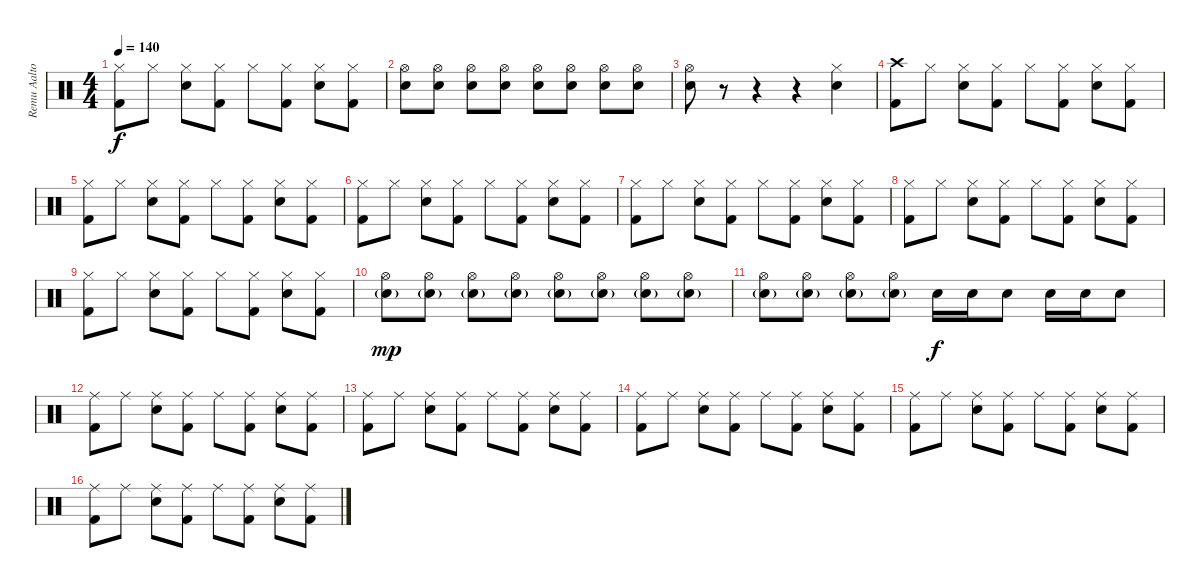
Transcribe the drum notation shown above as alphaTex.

\track ("Remu Aaltonen" "Remu Aalto") {instrument percussion}
\staff {score}
\articulation defaults
\ts (4 4)
\tempo 140
\clef neutral
\ks c
("Hi-Hat (closed)" "Kick (hit) 2").8{dy f} "Hi-Hat (closed)".8 ("Hi-Hat (closed)" "Snare (hit) 2").8 ("Hi-Hat (closed)" "Kick (hit) 2").8 "Hi-Hat (closed)".8 ("Hi-Hat (closed)" "Kick (hit) 2").8 ("Hi-Hat (closed)" "Snare (hit) 2").8 ("Hi-Hat (closed)" "Kick (hit) 2").8 |
("Hi-Hat (open)" "Snare (hit) 2").8{volume 5} ("Hi-Hat (open)" "Snare (hit) 2").8{volume 13} ("Hi-Hat (open)" "Snare (hit) 2").8 ("Hi-Hat (open)" "Snare (hit) 2").8 ("Hi-Hat (open)" "Snare (hit) 2").8 ("Hi-Hat (open)" "Snare (hit) 2").8 ("Hi-Hat (open)" "Snare (hit) 2").8 ("Hi-Hat (open)" "Snare (hit) 2").8 |
("Hi-Hat (open)" "Snare (hit) 2").8 r.8 r.4 r.4 ("Hi-Hat (closed)" "Snare (hit) 2").4 |
("Crash high (hit)" "Kick (hit) 2").8 "Hi-Hat (closed)".8 ("Hi-Hat (closed)" "Snare (hit) 2").8 ("Hi-Hat (closed)" "Kick (hit) 2").8 "Hi-Hat (closed)".8 ("Hi-Hat (closed)" "Kick (hit) 2").8 ("Hi-Hat (closed)" "Snare (hit) 2").8 ("Hi-Hat (closed)" "Kick (hit) 2").8 |
("Hi-Hat (closed)" "Kick (hit) 2").8 "Hi-Hat (closed)".8 ("Hi-Hat (closed)" "Snare (hit) 2").8 ("Hi-Hat (closed)" "Kick (hit) 2").8 "Hi-Hat (closed)".8 ("Hi-Hat (closed)" "Kick (hit) 2").8 ("Hi-Hat (closed)" "Snare (hit) 2").8 ("Hi-Hat (closed)" "Kick (hit) 2").8 |
("Hi-Hat (closed)" "Kick (hit) 2").8 "Hi-Hat (closed)".8 ("Hi-Hat (closed)" "Snare (hit) 2").8 ("Hi-Hat (closed)" "Kick (hit) 2").8 "Hi-Hat (closed)".8 ("Hi-Hat (closed)" "Kick (hit) 2").8 ("Hi-Hat (closed)" "Snare (hit) 2").8 ("Hi-Hat (closed)" "Kick (hit) 2").8 |
("Hi-Hat (closed)" "Kick (hit) 2").8 "Hi-Hat (closed)".8 ("Hi-Hat (closed)" "Snare (hit) 2").8 ("Hi-Hat (closed)" "Kick (hit) 2").8 "Hi-Hat (closed)".8 ("Hi-Hat (closed)" "Kick (hit) 2").8 ("Hi-Hat (closed)" "Snare (hit) 2").8 ("Hi-Hat (closed)" "Kick (hit) 2").8 |
("Hi-Hat (closed)" "Kick (hit) 2").8 "Hi-Hat (closed)".8 ("Hi-Hat (closed)" "Snare (hit) 2").8 ("Hi-Hat (closed)" "Kick (hit) 2").8 "Hi-Hat (closed)".8 ("Hi-Hat (closed)" "Kick (hit) 2").8 ("Hi-Hat (closed)" "Snare (hit) 2").8 ("Hi-Hat (closed)" "Kick (hit) 2").8 |
("Hi-Hat (closed)" "Kick (hit) 2").8 "Hi-Hat (closed)".8 ("Hi-Hat (closed)" "Snare (hit) 2").8 ("Hi-Hat (closed)" "Kick (hit) 2").8 "Hi-Hat (closed)".8 ("Hi-Hat (closed)" "Kick (hit) 2").8 ("Hi-Hat (closed)" "Snare (hit) 2").8 ("Hi-Hat (closed)" "Kick (hit) 2").8 |
("Hi-Hat (open)" "Snare (hit) 2"{g}).8{dy mp} ("Hi-Hat (open)" "Snare (hit) 2"{g}).8 ("Hi-Hat (open)" "Snare (hit) 2"{g}).8 ("Hi-Hat (open)" "Snare (hit) 2"{g}).8 ("Hi-Hat (open)" "Snare (hit) 2"{g}).8 ("Hi-Hat (open)" "Snare (hit) 2"{g}).8 ("Hi-Hat (open)" "Snare (hit) 2"{g}).8 ("Hi-Hat (open)" "Snare (hit) 2"{g}).8 |
("Hi-Hat (open)" "Snare (hit) 2"{g}).8 ("Hi-Hat (open)" "Snare (hit) 2"{g}).8 ("Hi-Hat (open)" "Snare (hit) 2"{g}).8 ("Hi-Hat (open)" "Snare (hit) 2"{g}).8 "Snare (hit) 2".16{dy f} "Snare (hit) 2".16 "Snare (hit) 2".8 "Snare (hit) 2".16 "Snare (hit) 2".16 "Snare (hit) 2".8 |
("Ride (middle)" "Kick (hit) 2").8 "Ride (middle)".8 ("Ride (middle)" "Snare (hit) 2").8 ("Ride (middle)" "Kick (hit) 2").8 "Ride (middle)".8 ("Ride (middle)" "Kick (hit) 2").8 ("Ride (middle)" "Snare (hit) 2").8 ("Ride (middle)" "Kick (hit) 2").8 |
("Ride (middle)" "Kick (hit) 2").8 "Ride (middle)".8 ("Ride (middle)" "Snare (hit) 2").8 ("Ride (middle)" "Kick (hit) 2").8 "Ride (middle)".8 ("Ride (middle)" "Kick (hit) 2").8 ("Ride (middle)" "Snare (hit) 2").8 ("Ride (middle)" "Kick (hit) 2").8 |
("Ride (middle)" "Kick (hit) 2").8 "Ride (middle)".8 ("Ride (middle)" "Snare (hit) 2").8 ("Ride (middle)" "Kick (hit) 2").8 "Ride (middle)".8 ("Ride (middle)" "Kick (hit) 2").8 ("Ride (middle)" "Snare (hit) 2").8 ("Ride (middle)" "Kick (hit) 2").8 |
("Ride (middle)" "Kick (hit) 2").8 "Ride (middle)".8 ("Ride (middle)" "Snare (hit) 2").8 ("Ride (middle)" "Kick (hit) 2").8 "Ride (middle)".8 ("Ride (middle)" "Kick (hit) 2").8 ("Ride (middle)" "Snare (hit) 2").8 ("Ride (middle)" "Kick (hit) 2").8 |
("Ride (middle)" "Kick (hit) 2").8 "Ride (middle)".8 ("Ride (middle)" "Snare (hit) 2").8 ("Ride (middle)" "Kick (hit) 2").8 "Ride (middle)".8 ("Ride (middle)" "Kick (hit) 2").8 ("Ride (middle)" "Snare (hit) 2").8 ("Ride (middle)" "Kick (hit) 2").8
